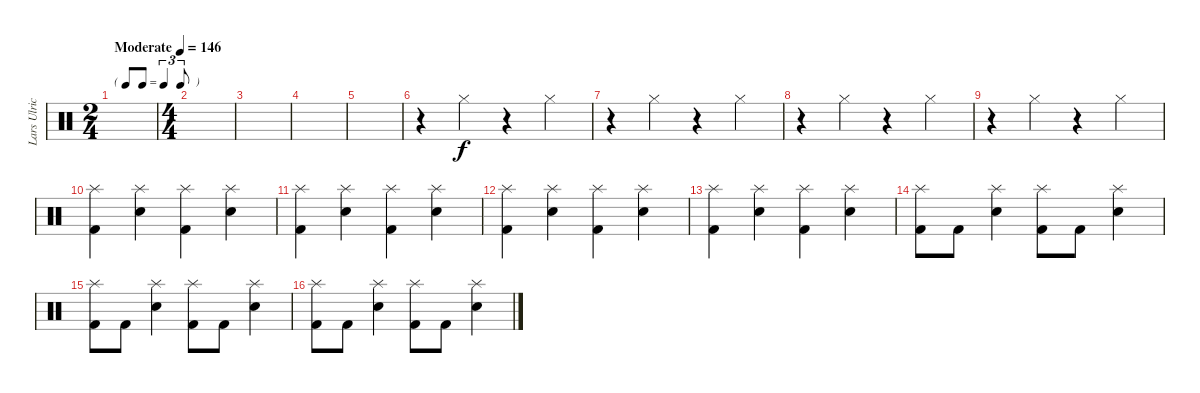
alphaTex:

\track ("Lars Ulrich" "Lars Ulric") {instrument percussion}
\staff {score}
\articulation defaults
\ts (2 4)
\tf triplet8th
\tempo (146 "Moderate")
\clef neutral
\ks c
|
\ts (4 4)
|
|
|
|
r.4 "Hi-Hat (closed)".4 r.4 "Hi-Hat (closed)".4 |
r.4 "Hi-Hat (closed)".4 r.4 "Hi-Hat (closed)".4 |
r.4 "Hi-Hat (closed)".4 r.4 "Hi-Hat (closed)".4 |
r.4 "Hi-Hat (closed)".4 r.4 "Hi-Hat (closed)".4 |
("Splash (hit)" "Kick (hit) 2").4 ("Splash (hit)" "Snare (hit) 2").4 ("Splash (hit)" "Kick (hit) 2").4 ("Splash (hit)" "Snare (hit) 2").4 |
("Splash (hit)" "Kick (hit) 2").4 ("Splash (hit)" "Snare (hit) 2").4 ("Splash (hit)" "Kick (hit) 2").4 ("Splash (hit)" "Snare (hit) 2").4 |
("Splash (hit)" "Kick (hit) 2").4 ("Splash (hit)" "Snare (hit) 2").4 ("Splash (hit)" "Kick (hit) 2").4 ("Splash (hit)" "Snare (hit) 2").4 |
("Splash (hit)" "Kick (hit) 2").4 ("Splash (hit)" "Snare (hit) 2").4 ("Splash (hit)" "Kick (hit) 2").4 ("Splash (hit)" "Snare (hit) 2").4 |
("Splash (hit)" "Kick (hit) 2").8 "Kick (hit) 2".8 ("Splash (hit)" "Snare (hit) 2").4 ("Splash (hit)" "Kick (hit) 2").8 "Kick (hit) 2".8 ("Splash (hit)" "Snare (hit) 2").4 |
("Splash (hit)" "Kick (hit) 2").8 "Kick (hit) 2".8 ("Splash (hit)" "Snare (hit) 2").4 ("Splash (hit)" "Kick (hit) 2").8 "Kick (hit) 2".8 ("Splash (hit)" "Snare (hit) 2").4 |
("Splash (hit)" "Kick (hit) 2").8 "Kick (hit) 2".8 ("Splash (hit)" "Snare (hit) 2").4 ("Splash (hit)" "Kick (hit) 2").8 "Kick (hit) 2".8 ("Splash (hit)" "Snare (hit) 2").4
